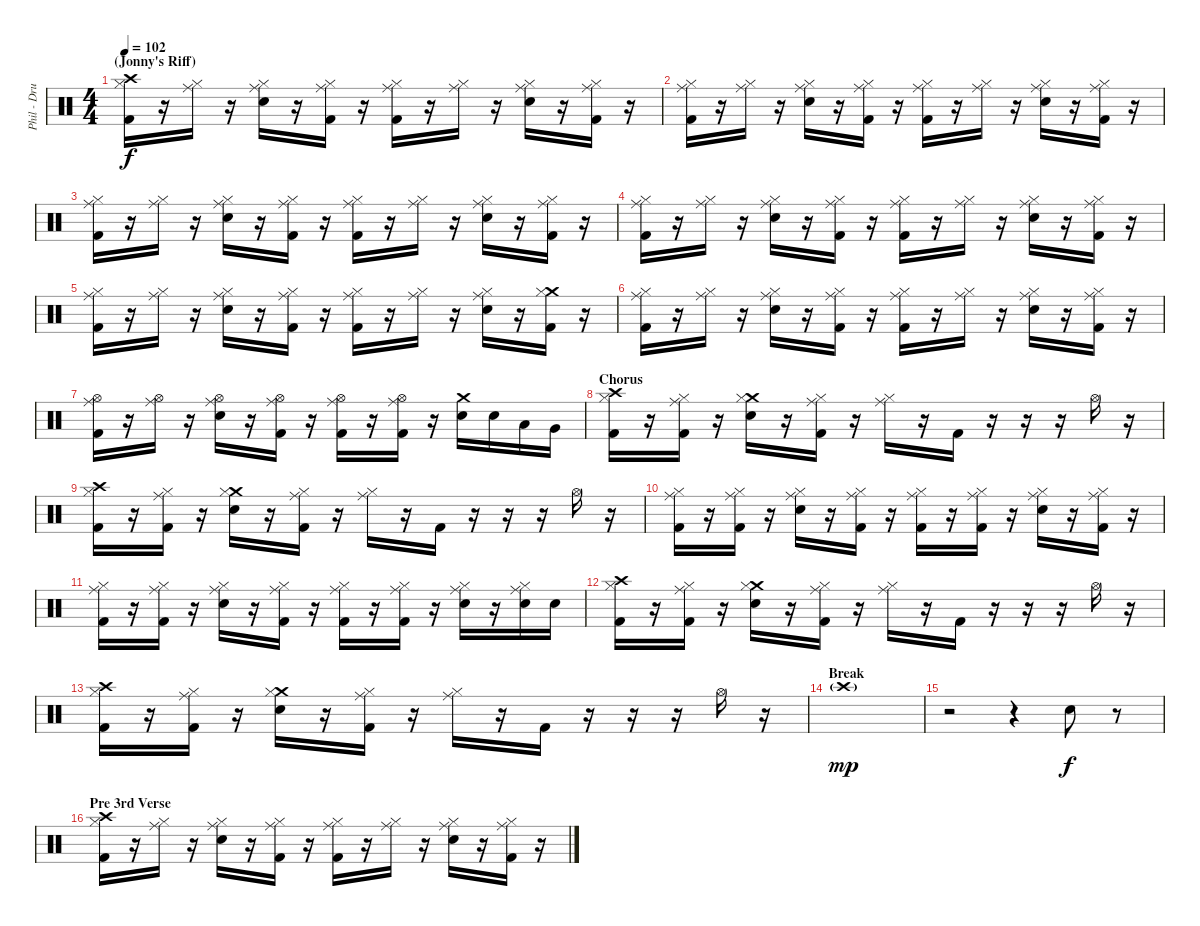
\track ("Phil - Drums" "Phil - Dru") {instrument percussion}
\staff {score}
\articulation defaults
\ts (4 4)
\section ("" "(Jonny's Riff)")
\tempo 102
\clef neutral
\ks c
("Crash high (hit)" "Kick (hit) 2" "Hi-Hat (closed)").16{dy f} r.16 ("Ride (middle)" "Hi-Hat (closed)").16 r.16 ("Ride (middle)" "Snare (hit) 2" "Hi-Hat (closed)").16 r.16 ("Ride (middle)" "Kick (hit) 2" "Hi-Hat (closed)").16 r.16 ("Ride (middle)" "Kick (hit) 2" "Hi-Hat (closed)").16 r.16 ("Ride (middle)" "Hi-Hat (closed)").16 r.16 ("Ride (middle)" "Snare (hit) 2" "Hi-Hat (closed)").16 r.16 ("Ride (middle)" "Kick (hit) 2" "Hi-Hat (closed)").16 r.16 |
("Ride (middle)" "Kick (hit) 2" "Hi-Hat (closed)").16 r.16 ("Ride (middle)" "Hi-Hat (closed)").16 r.16 ("Ride (middle)" "Snare (hit) 2" "Hi-Hat (closed)").16 r.16 ("Ride (middle)" "Kick (hit) 2" "Hi-Hat (closed)").16 r.16 ("Ride (middle)" "Kick (hit) 2" "Hi-Hat (closed)").16 r.16 ("Ride (middle)" "Hi-Hat (closed)").16 r.16 ("Ride (middle)" "Snare (hit) 2" "Hi-Hat (closed)").16 r.16 ("Ride (middle)" "Kick (hit) 2" "Hi-Hat (closed)").16 r.16 |
("Ride (middle)" "Kick (hit) 2" "Hi-Hat (closed)").16 r.16 ("Ride (middle)" "Hi-Hat (closed)").16 r.16 ("Ride (middle)" "Snare (hit) 2" "Hi-Hat (closed)").16 r.16 ("Ride (middle)" "Kick (hit) 2" "Hi-Hat (closed)").16 r.16 ("Ride (middle)" "Kick (hit) 2" "Hi-Hat (closed)").16 r.16 ("Ride (middle)" "Hi-Hat (closed)").16 r.16 ("Ride (middle)" "Snare (hit) 2" "Hi-Hat (closed)").16 r.16 ("Ride (middle)" "Kick (hit) 2" "Hi-Hat (closed)").16 r.16 |
("Ride (middle)" "Kick (hit) 2" "Hi-Hat (closed)").16 r.16 ("Ride (middle)" "Hi-Hat (closed)").16 r.16 ("Ride (middle)" "Snare (hit) 2" "Hi-Hat (closed)").16 r.16 ("Ride (middle)" "Kick (hit) 2" "Hi-Hat (closed)").16 r.16 ("Ride (middle)" "Kick (hit) 2" "Hi-Hat (closed)").16 r.16 ("Ride (middle)" "Hi-Hat (closed)").16 r.16 ("Ride (middle)" "Snare (hit) 2" "Hi-Hat (closed)").16 r.16 ("Ride (middle)" "Kick (hit) 2" "Hi-Hat (closed)").16 r.16 |
("Ride (middle)" "Kick (hit) 2" "Hi-Hat (closed)").16 r.16 ("Ride (middle)" "Hi-Hat (closed)").16 r.16 ("Ride (middle)" "Snare (hit) 2" "Hi-Hat (closed)").16 r.16 ("Ride (middle)" "Kick (hit) 2" "Hi-Hat (closed)").16 r.16 ("Ride (middle)" "Kick (hit) 2" "Hi-Hat (closed)").16 r.16 ("Ride (middle)" "Hi-Hat (closed)").16 r.16 ("Ride (middle)" "Snare (hit) 2" "Hi-Hat (closed)").16 r.16 ("Crash medium (hit)" "Kick (hit) 2" "Hi-Hat (closed)").16 r.16 |
("Ride (middle)" "Kick (hit) 2" "Hi-Hat (closed)").16 r.16 ("Ride (middle)" "Hi-Hat (closed)").16 r.16 ("Ride (middle)" "Snare (hit) 2" "Hi-Hat (closed)").16 r.16 ("Ride (middle)" "Kick (hit) 2" "Hi-Hat (closed)").16 r.16 ("Ride (middle)" "Kick (hit) 2" "Hi-Hat (closed)").16 r.16 ("Ride (middle)" "Hi-Hat (closed)").16 r.16 ("Ride (middle)" "Snare (hit) 2" "Hi-Hat (closed)").16 r.16 ("Ride (middle)" "Kick (hit) 2" "Hi-Hat (closed)").16 r.16 |
("Ride (middle)" "Kick (hit) 2" "Hi-Hat (open)").16 r.16 ("Ride (middle)" "Hi-Hat (open)").16 r.16 ("Ride (middle)" "Snare (hit) 2" "Hi-Hat (open)").16 r.16 ("Ride (middle)" "Kick (hit) 2" "Hi-Hat (open)").16 r.16 ("Ride (middle)" "Kick (hit) 2" "Hi-Hat (open)").16 r.16 ("Ride (middle)" "Kick (hit) 2" "Hi-Hat (open)").16 r.16 ("Crash medium (hit)" "Electric Snare (hit)").16 "Electric Snare (hit)".16 "Low Tom (hit)".16 "Very Low Tom (hit)".16 |
\section ("" "Chorus")
("Crash high (hit)" "Kick (hit) 2" "Hi-Hat (closed)").16 r.16 ("Ride (middle)" "Kick (hit) 2" "Hi-Hat (closed)").16 r.16 ("Crash medium (hit)" "Electric Snare (hit)" "Hi-Hat (closed)").16 r.16 ("Ride (middle)" "Kick (hit) 2" "Hi-Hat (closed)").16 r.16 ("Ride (middle)" "Hi-Hat (closed)").16 r.16 "Kick (hit) 2".16 r.16 r.16 r.16 "Hi-Hat (open)".16 r.16 |
("Crash high (hit)" "Kick (hit) 2" "Hi-Hat (closed)").16 r.16 ("Ride (middle)" "Kick (hit) 2" "Hi-Hat (closed)").16 r.16 ("Crash medium (hit)" "Electric Snare (hit)" "Hi-Hat (closed)").16 r.16 ("Ride (middle)" "Kick (hit) 2" "Hi-Hat (closed)").16 r.16 ("Ride (middle)" "Hi-Hat (closed)").16 r.16 "Kick (hit) 2".16 r.16 r.16 r.16 "Hi-Hat (open)".16 r.16 |
("Ride (middle)" "Kick (hit) 2" "Hi-Hat (closed)").16 r.16 ("Ride (middle)" "Kick (hit) 2" "Hi-Hat (closed)").16 r.16 ("Ride (middle)" "Electric Snare (hit)" "Hi-Hat (closed)").16 r.16 ("Ride (middle)" "Kick (hit) 2" "Hi-Hat (closed)").16 r.16 ("Ride (middle)" "Kick (hit) 2" "Hi-Hat (closed)").16 r.16 ("Ride (middle)" "Kick (hit) 2" "Hi-Hat (closed)").16 r.16 ("Ride (middle)" "Electric Snare (hit)" "Hi-Hat (closed)").16 r.16 ("Ride (middle)" "Kick (hit) 2" "Hi-Hat (closed)").16 r.16 |
("Ride (middle)" "Kick (hit) 2" "Hi-Hat (closed)").16 r.16 ("Ride (middle)" "Kick (hit) 2" "Hi-Hat (closed)").16 r.16 ("Ride (middle)" "Electric Snare (hit)" "Hi-Hat (closed)").16 r.16 ("Ride (middle)" "Kick (hit) 2" "Hi-Hat (closed)").16 r.16 ("Ride (middle)" "Kick (hit) 2" "Hi-Hat (closed)").16 r.16 ("Ride (middle)" "Kick (hit) 2" "Hi-Hat (closed)").16 r.16 ("Ride (middle)" "Electric Snare (hit)" "Hi-Hat (closed)").16 r.16 ("Ride (middle)" "Electric Snare (hit)" "Hi-Hat (closed)").16 "Electric Snare (hit)".16 |
("Crash high (hit)" "Kick (hit) 2" "Hi-Hat (closed)").16 r.16 ("Ride (middle)" "Kick (hit) 2" "Hi-Hat (closed)").16 r.16 ("Crash medium (hit)" "Electric Snare (hit)" "Hi-Hat (closed)").16 r.16 ("Ride (middle)" "Kick (hit) 2" "Hi-Hat (closed)").16 r.16 ("Ride (middle)" "Hi-Hat (closed)").16 r.16 "Kick (hit) 2".16 r.16 r.16 r.16 "Hi-Hat (open)".16 r.16 |
("Crash high (hit)" "Kick (hit) 2" "Hi-Hat (closed)").16 r.16 ("Ride (middle)" "Kick (hit) 2" "Hi-Hat (closed)").16 r.16 ("Crash medium (hit)" "Electric Snare (hit)" "Hi-Hat (closed)").16 r.16 ("Ride (middle)" "Kick (hit) 2" "Hi-Hat (closed)").16 r.16 ("Ride (middle)" "Hi-Hat (closed)").16 r.16 "Kick (hit) 2".16 r.16 r.16 r.16 "Hi-Hat (open)".16 r.16 |
\section ("" "Break")
"Crash high (hit)"{g}.1{dy mp} |
r.2 r.4 "Snare (hit) 2".8{dy f} r.8 |
\section ("" "Pre 3rd Verse")
("Crash high (hit)" "Kick (hit) 2" "Hi-Hat (closed)").16 r.16 ("Ride (middle)" "Hi-Hat (closed)").16 r.16 ("Ride (middle)" "Electric Snare (hit)" "Hi-Hat (closed)").16 r.16 ("Ride (middle)" "Kick (hit) 2" "Hi-Hat (closed)").16 r.16 ("Ride (middle)" "Kick (hit) 2" "Hi-Hat (closed)").16 r.16 ("Ride (middle)" "Hi-Hat (closed)").16 r.16 ("Ride (middle)" "Electric Snare (hit)" "Hi-Hat (closed)").16 r.16 ("Ride (middle)" "Kick (hit) 2" "Hi-Hat (closed)").16 r.16
